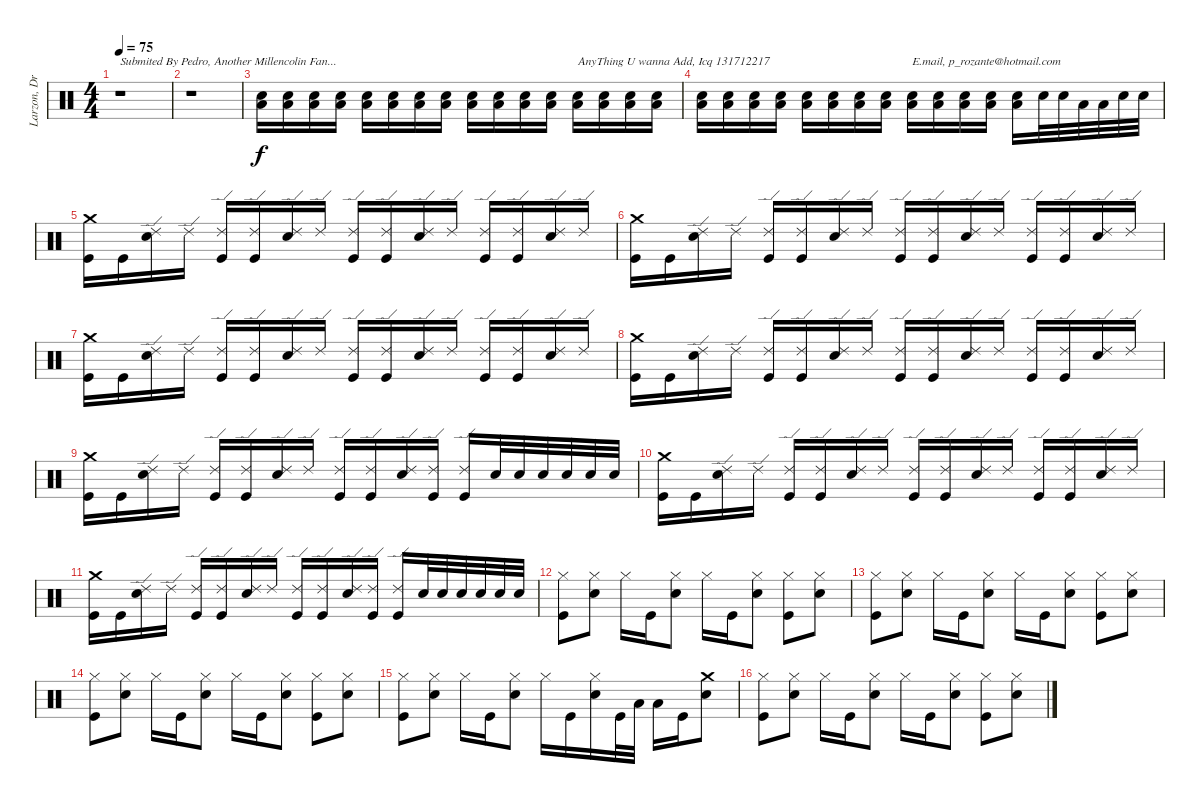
\track ("Larzon, Drums" "Larzon, Dr") {instrument percussion}
\staff {score}
\articulation defaults
\ts (4 4)
\tempo 75
\clef neutral
\ks c
r.1{txt "Submited By Pedro, Another Millencolin Fan..." dy f} |
r.1 |
("Snare (hit) 2" "Low Floor Tom (hit)").16 ("Snare (hit) 2" "Low Floor Tom (hit)").16 ("Snare (hit) 2" "Low Floor Tom (hit)").16 ("Snare (hit) 2" "Low Floor Tom (hit)").16 ("Snare (hit) 2" "Low Floor Tom (hit)").16 ("Snare (hit) 2" "Low Floor Tom (hit)").16 ("Snare (hit) 2" "Low Floor Tom (hit)").16 ("Snare (hit) 2" "Low Floor Tom (hit)").16 ("Snare (hit) 2" "Low Floor Tom (hit)").16 ("Snare (hit) 2" "Low Floor Tom (hit)").16 ("Snare (hit) 2" "Low Floor Tom (hit)").16 ("Snare (hit) 2" "Low Floor Tom (hit)").16 ("Snare (hit) 2" "Low Floor Tom (hit)").16{txt "AnyThing U wanna Add, Icq 131712217"} ("Snare (hit) 2" "Low Floor Tom (hit)").16 ("Snare (hit) 2" "Low Floor Tom (hit)").16 ("Snare (hit) 2" "Low Floor Tom (hit)").16 |
("Snare (hit) 2" "Low Floor Tom (hit)").16 ("Snare (hit) 2" "Low Floor Tom (hit)").16 ("Snare (hit) 2" "Low Floor Tom (hit)").16 ("Snare (hit) 2" "Low Floor Tom (hit)").16 ("Snare (hit) 2" "Low Floor Tom (hit)").16 ("Snare (hit) 2" "Low Floor Tom (hit)").16 ("Snare (hit) 2" "Low Floor Tom (hit)").16 ("Snare (hit) 2" "Low Floor Tom (hit)").16 ("Snare (hit) 2" "Low Floor Tom (hit)").16{txt "E.mail, p_rozante@hotmail.com"} ("Snare (hit) 2" "Low Floor Tom (hit)").16 ("Snare (hit) 2" "Low Floor Tom (hit)").16 ("Snare (hit) 2" "Low Floor Tom (hit)").16 ("Snare (hit) 2" "Low Floor Tom (hit)").16 "Snare (hit) 2".32 "Snare (hit) 2".32 "Low Tom (hit)".32 "Low Tom (hit)".32 "Snare (hit) 2".32 "Snare (hit) 2".32 |
("Crash medium (hit)" "Kick (hit)").16 "Kick (hit)".16 ("Ride (edge) 2" "Snare (hit) 2").16 "Ride (edge) 2".16 ("Ride (edge) 2" "Kick (hit)").16 ("Ride (edge) 2" "Kick (hit)").16 ("Ride (edge) 2" "Snare (hit) 2").16 "Ride (edge) 2".16 ("Ride (edge) 2" "Kick (hit)").16 ("Ride (edge) 2" "Kick (hit)").16 ("Ride (edge) 2" "Snare (hit) 2").16 "Ride (edge) 2".16 ("Ride (edge) 2" "Kick (hit)").16 ("Ride (edge) 2" "Kick (hit)").16 ("Ride (edge) 2" "Snare (hit) 2").16 "Ride (edge) 2".16 |
("Crash medium (hit)" "Kick (hit)").16 "Kick (hit)".16 ("Ride (edge) 2" "Snare (hit) 2").16 "Ride (edge) 2".16 ("Ride (edge) 2" "Kick (hit)").16 ("Ride (edge) 2" "Kick (hit)").16 ("Ride (edge) 2" "Snare (hit) 2").16 "Ride (edge) 2".16 ("Ride (edge) 2" "Kick (hit)").16 ("Ride (edge) 2" "Kick (hit)").16 ("Ride (edge) 2" "Snare (hit) 2").16 "Ride (edge) 2".16 ("Ride (edge) 2" "Kick (hit)").16 ("Ride (edge) 2" "Kick (hit)").16 ("Ride (edge) 2" "Snare (hit) 2").16 "Ride (edge) 2".16 |
("Crash medium (hit)" "Kick (hit)").16 "Kick (hit)".16 ("Ride (edge) 2" "Snare (hit) 2").16 "Ride (edge) 2".16 ("Ride (edge) 2" "Kick (hit)").16 ("Ride (edge) 2" "Kick (hit)").16 ("Ride (edge) 2" "Snare (hit) 2").16 "Ride (edge) 2".16 ("Ride (edge) 2" "Kick (hit)").16 ("Ride (edge) 2" "Kick (hit)").16 ("Ride (edge) 2" "Snare (hit) 2").16 "Ride (edge) 2".16 ("Ride (edge) 2" "Kick (hit)").16 ("Ride (edge) 2" "Kick (hit)").16 ("Ride (edge) 2" "Snare (hit) 2").16 "Ride (edge) 2".16 |
("Crash medium (hit)" "Kick (hit)").16 "Kick (hit)".16 ("Ride (edge) 2" "Snare (hit) 2").16 "Ride (edge) 2".16 ("Ride (edge) 2" "Kick (hit)").16 ("Ride (edge) 2" "Kick (hit)").16 ("Ride (edge) 2" "Snare (hit) 2").16 "Ride (edge) 2".16 ("Ride (edge) 2" "Kick (hit)").16 ("Ride (edge) 2" "Kick (hit)").16 ("Ride (edge) 2" "Snare (hit) 2").16 "Ride (edge) 2".16 ("Ride (edge) 2" "Kick (hit)").16 ("Ride (edge) 2" "Kick (hit)").16 ("Ride (edge) 2" "Snare (hit) 2").16 "Ride (edge) 2".16 |
("Crash medium (hit)" "Kick (hit)").16 "Kick (hit)".16 ("Ride (edge) 2" "Snare (hit) 2").16 "Ride (edge) 2".16 ("Ride (edge) 2" "Kick (hit)").16 ("Ride (edge) 2" "Kick (hit)").16 ("Ride (edge) 2" "Snare (hit) 2").16 "Ride (edge) 2".16 ("Ride (edge) 2" "Kick (hit)").16 ("Ride (edge) 2" "Kick (hit)").16 ("Ride (edge) 2" "Snare (hit) 2").16 ("Ride (edge) 2" "Kick (hit)").16 ("Ride (edge) 2" "Kick (hit)").16 "Snare (hit) 2".32 "Snare (hit) 2".32 "Snare (hit) 2".32 "Snare (hit) 2".32 "Snare (hit) 2".32 "Snare (hit) 2".32 |
("Crash medium (hit)" "Kick (hit)").16 "Kick (hit)".16 ("Ride (edge) 2" "Snare (hit) 2").16 "Ride (edge) 2".16 ("Ride (edge) 2" "Kick (hit)").16 ("Ride (edge) 2" "Kick (hit)").16 ("Ride (edge) 2" "Snare (hit) 2").16 "Ride (edge) 2".16 ("Ride (edge) 2" "Kick (hit)").16 ("Ride (edge) 2" "Kick (hit)").16 ("Ride (edge) 2" "Snare (hit) 2").16 "Ride (edge) 2".16 ("Ride (edge) 2" "Kick (hit)").16 ("Ride (edge) 2" "Kick (hit)").16 ("Ride (edge) 2" "Snare (hit) 2").16 "Ride (edge) 2".16 |
("Crash medium (hit)" "Kick (hit)").16 "Kick (hit)".16 ("Ride (edge) 2" "Snare (hit) 2").16 "Ride (edge) 2".16 ("Ride (edge) 2" "Kick (hit)").16 ("Ride (edge) 2" "Kick (hit)").16 ("Ride (edge) 2" "Snare (hit) 2").16 "Ride (edge) 2".16 ("Ride (edge) 2" "Kick (hit)").16 ("Ride (edge) 2" "Kick (hit)").16 ("Ride (edge) 2" "Snare (hit) 2").16 ("Ride (edge) 2" "Kick (hit)").16 ("Ride (edge) 2" "Kick (hit)").16 "Snare (hit) 2".32 "Snare (hit) 2".32 "Snare (hit) 2".32 "Snare (hit) 2".32 "Snare (hit) 2".32 "Snare (hit) 2".32 |
("Hi-Hat (closed)" "Kick (hit)").8 ("Hi-Hat (closed)" "Snare (hit) 2").8 "Hi-Hat (closed)".16 "Kick (hit)".16 ("Hi-Hat (closed)" "Snare (hit) 2").8 "Hi-Hat (closed)".16 "Kick (hit)".16 ("Hi-Hat (closed)" "Snare (hit) 2").8 ("Hi-Hat (closed)" "Kick (hit)").8 ("Hi-Hat (closed)" "Snare (hit) 2").8 |
("Hi-Hat (closed)" "Kick (hit)").8 ("Hi-Hat (closed)" "Snare (hit) 2").8 "Hi-Hat (closed)".16 "Kick (hit)".16 ("Hi-Hat (closed)" "Snare (hit) 2").8 "Hi-Hat (closed)".16 "Kick (hit)".16 ("Hi-Hat (closed)" "Snare (hit) 2").8 ("Hi-Hat (closed)" "Kick (hit)").8 ("Hi-Hat (closed)" "Snare (hit) 2").8 |
("Hi-Hat (closed)" "Kick (hit)").8 ("Hi-Hat (closed)" "Snare (hit) 2").8 "Hi-Hat (closed)".16 "Kick (hit)".16 ("Hi-Hat (closed)" "Snare (hit) 2").8 "Hi-Hat (closed)".16 "Kick (hit)".16 ("Hi-Hat (closed)" "Snare (hit) 2").8 ("Hi-Hat (closed)" "Kick (hit)").8 ("Hi-Hat (closed)" "Snare (hit) 2").8 |
("Hi-Hat (closed)" "Kick (hit)").8 ("Hi-Hat (closed)" "Snare (hit) 2").8 "Hi-Hat (closed)".16 "Kick (hit)".16 ("Hi-Hat (closed)" "Snare (hit) 2").8 "Hi-Hat (closed)".16 "Kick (hit)".16 ("Hi-Hat (closed)" "Snare (hit) 2").16 "Kick (hit)".32 "Low Tom (hit)".32 "Low Floor Tom (hit)".16 "Kick (hit)".16 ("Crash medium (hit)" "Snare (hit) 2").8 |
("Hi-Hat (closed)" "Kick (hit)").8 ("Hi-Hat (closed)" "Snare (hit) 2").8 "Hi-Hat (closed)".16 "Kick (hit)".16 ("Hi-Hat (closed)" "Snare (hit) 2").8 "Hi-Hat (closed)".16 "Kick (hit)".16 ("Hi-Hat (closed)" "Snare (hit) 2").8 ("Hi-Hat (closed)" "Kick (hit)").8 ("Hi-Hat (closed)" "Snare (hit) 2").8
